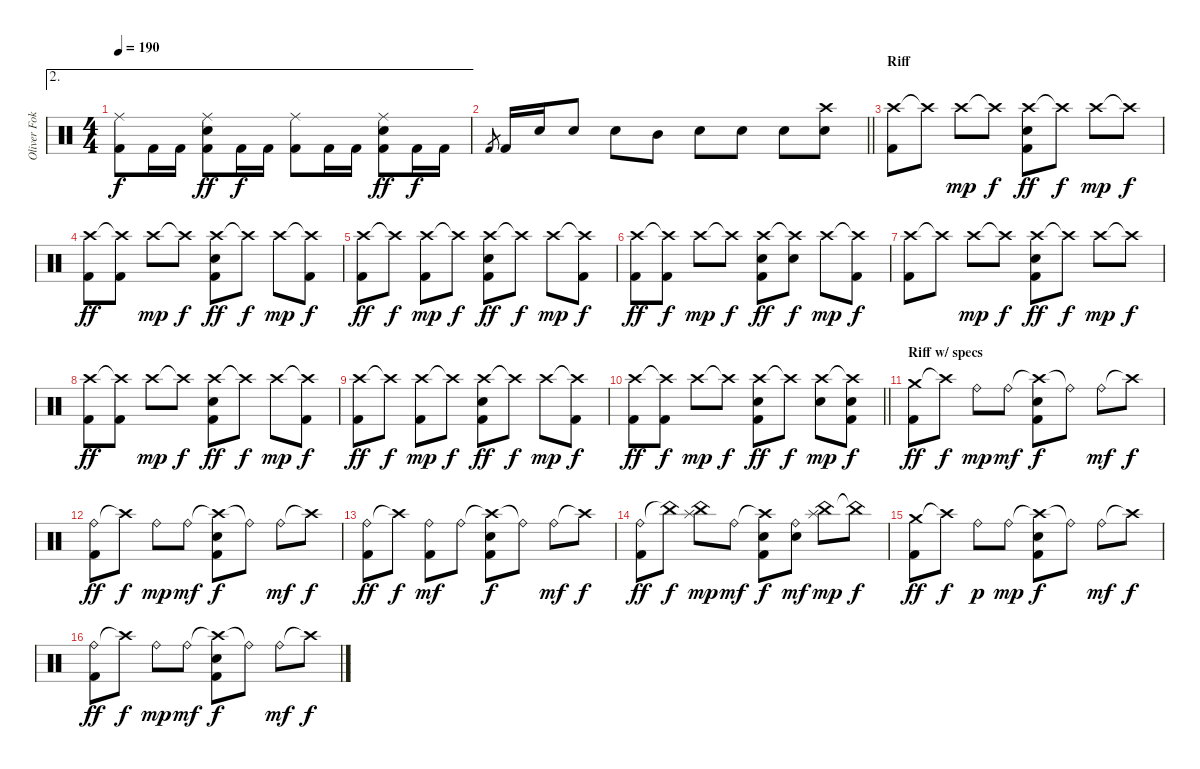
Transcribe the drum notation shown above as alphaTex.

\track ("Oliver Fokin" "Oliver Fok") {instrument percussion}
\staff {score}
\articulation defaults
\ae 2
\ts (4 4)
\tempo 190
\clef neutral
\ks c
("Ride (middle)" "Kick (hit) 2").8{dy f} "Kick (hit) 2".16 "Kick (hit) 2".16 ("Ride (middle)" "Electric Snare (hit)" "Kick (hit) 2").8{dy ff} "Kick (hit) 2".16{dy f} "Kick (hit) 2".16 ("Ride (middle)" "Kick (hit) 2").8 "Kick (hit) 2".16 "Kick (hit) 2".16 ("Ride (middle)" "Electric Snare (hit)" "Kick (hit) 2").8{dy ff} "Kick (hit) 2".16{dy f} "Kick (hit) 2".16 |
\barLineRight lightlight "Kick (hit) 2".8{gr} "Kick (hit) 2".16 "Electric Snare (hit)".16 "Electric Snare (hit)".8 "Electric Snare (hit)".8 "Mid Tom (hit)".8 "Electric Snare (hit)".8 "Electric Snare (hit)".8 "Electric Snare (hit)".8
("Crash high (hit)" "Electric Snare (hit)").8 |
\section ("" "Riff")
("Crash high (hit)" "Kick (hit) 2").8 "Crash high (hit)"{t}.8 "Crash high (hit)".8{dy mp} "Crash high (hit)"{t}.8{dy f} ("Crash high (hit)" "Electric Snare (hit)" "Kick (hit) 2").8{dy ff} "Crash high (hit)"{t}.8{dy f} "Crash high (hit)".8{dy mp} "Crash high (hit)"{t}.8{dy f} |
("Crash high (hit)" "Kick (hit) 2").8{dy ff} ("Crash high (hit)"{t} "Kick (hit) 2").8 "Crash high (hit)".8{dy mp} "Crash high (hit)"{t}.8{dy f} ("Crash high (hit)" "Electric Snare (hit)" "Kick (hit) 2").8{dy ff} "Crash high (hit)"{t}.8{dy f} "Crash high (hit)".8{dy mp} ("Crash high (hit)"{t} "Kick (hit) 2").8{dy f} |
("Crash high (hit)" "Kick (hit) 2").8{dy ff} "Crash high (hit)"{t}.8{dy f} ("Crash high (hit)" "Kick (hit) 2").8{dy mp} "Crash high (hit)"{t}.8{dy f} ("Crash high (hit)" "Electric Snare (hit)" "Kick (hit) 2").8{dy ff} "Crash high (hit)"{t}.8{dy f} "Crash high (hit)".8{dy mp} ("Crash high (hit)"{t} "Kick (hit) 2").8{dy f} |
("Crash high (hit)" "Kick (hit) 2").8{dy ff} ("Crash high (hit)"{t} "Kick (hit) 2").8{dy f} "Crash high (hit)".8{dy mp} "Crash high (hit)"{t}.8{dy f} ("Crash high (hit)" "Electric Snare (hit)" "Kick (hit) 2").8{dy ff} ("Crash high (hit)"{t} "Electric Snare (hit)").8{dy f} "Crash high (hit)".8{dy mp} ("Crash high (hit)"{t} "Kick (hit) 2").8{dy f} |
("Crash high (hit)" "Kick (hit) 2").8 "Crash high (hit)"{t}.8 "Crash high (hit)".8{dy mp} "Crash high (hit)"{t}.8{dy f} ("Crash high (hit)" "Electric Snare (hit)" "Kick (hit) 2").8{dy ff} "Crash high (hit)"{t}.8{dy f} "Crash high (hit)".8{dy mp} "Crash high (hit)"{t}.8{dy f} |
("Crash high (hit)" "Kick (hit) 2").8{dy ff} ("Crash high (hit)"{t} "Kick (hit) 2").8 "Crash high (hit)".8{dy mp} "Crash high (hit)"{t}.8{dy f} ("Crash high (hit)" "Electric Snare (hit)" "Kick (hit) 2").8{dy ff} "Crash high (hit)"{t}.8{dy f} "Crash high (hit)".8{dy mp} ("Crash high (hit)"{t} "Kick (hit) 2").8{dy f} |
("Crash high (hit)" "Kick (hit) 2").8{dy ff} "Crash high (hit)"{t}.8{dy f} ("Crash high (hit)" "Kick (hit) 2").8{dy mp} "Crash high (hit)"{t}.8{dy f} ("Crash high (hit)" "Electric Snare (hit)" "Kick (hit) 2").8{dy ff} "Crash high (hit)"{t}.8{dy f} "Crash high (hit)".8{dy mp} ("Crash high (hit)"{t} "Kick (hit) 2").8{dy f} |
\barLineRight lightlight
("Crash high (hit)" "Kick (hit) 2").8{dy ff} ("Crash high (hit)"{t} "Kick (hit) 2").8{dy f} "Crash high (hit)".8{dy mp} "Crash high (hit)"{t}.8{dy f} ("Crash high (hit)" "Electric Snare (hit)" "Kick (hit) 2").8{dy ff} "Crash high (hit)"{t}.8{dy f} ("Crash high (hit)" "Electric Snare (hit)").8{dy mp} ("Crash high (hit)"{t} "Electric Snare (hit)" "Kick (hit) 2").8{dy f} |
\section ("" "Riff w/ specs")
("Crash medium (hit)" "Kick (hit) 2").8{dy ff} "Crash high (hit)"{t}.8{dy f} "Ride (bell)".8{dy mp} "Ride (bell)".8{dy mf} ("Crash high (hit)"{t} "Electric Snare (hit)" "Kick (hit) 2").8{dy f} "Ride (bell)"{t}.8 "Ride (bell)".8{dy mf} "Crash high (hit)"{t}.8{dy f} |
("Ride (bell)" "Kick (hit) 2").8{dy ff} "Crash high (hit)"{t}.8{dy f} "Ride (bell)".8{dy mp} "Ride (bell)".8{dy mf} ("Crash high (hit)"{t} "Electric Snare (hit)" "Kick (hit) 2").8{dy f} "Ride (bell)"{t}.8 "Ride (bell)".8{dy mf} "Crash high (hit)"{t}.8{dy f} |
("Ride (bell)" "Kick (hit) 2").8{dy ff} "Crash high (hit)"{t}.8{dy f} ("Ride (bell)" "Kick (hit) 2").8{dy mf} "Ride (bell)".8 ("Crash high (hit)"{t} "Electric Snare (hit)" "Kick (hit) 2").8{dy f} "Ride (bell)"{t}.8 "Ride (bell)".8{dy mf} "Crash high (hit)"{t}.8{dy f} |
("Ride (bell)" "Kick (hit) 2").8{dy ff} "China (hit)"{t}.8{dy f} ("China (hit)" "Splash (hit)").8{dy mp} "Ride (bell)".8{dy mf} ("Crash high (hit)"{t} "Electric Snare (hit)" "Kick (hit) 2").8{dy f} ("Ride (bell)" "Electric Snare (hit)").8{dy mf} ("China (hit)" "Splash (hit)").8{dy mp} "China (hit)"{t}.8{dy f} |
("Crash medium (hit)" "Kick (hit) 2").8{dy ff} "Crash high (hit)"{t}.8{dy f} "Ride (bell)".8{dy p} "Ride (bell)".8{dy mp} ("Crash high (hit)"{t} "Electric Snare (hit)" "Kick (hit) 2").8{dy f} "Ride (bell)"{t}.8 "Ride (bell)".8{dy mf} "Crash high (hit)"{t}.8{dy f} |
("Ride (bell)" "Kick (hit) 2").8{dy ff} "Crash high (hit)"{t}.8{dy f} "Ride (bell)".8{dy mp} "Ride (bell)".8{dy mf} ("Crash high (hit)"{t} "Electric Snare (hit)" "Kick (hit) 2").8{dy f} "Ride (bell)"{t}.8 "Ride (bell)".8{dy mf} "Crash high (hit)"{t}.8{dy f}
